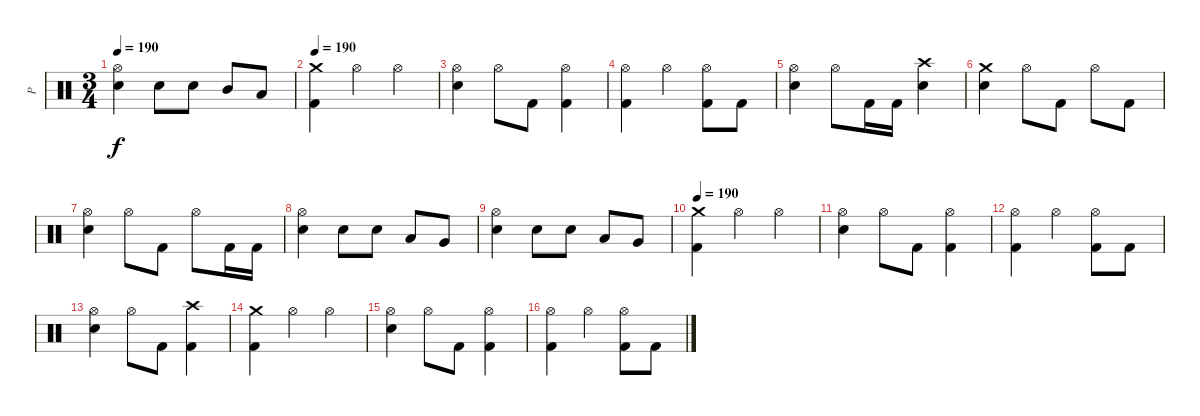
\track ("P" "P") {instrument percussion}
\staff {score}
\articulation defaults
\ts (3 4)
\tempo 190
\clef neutral
\ks c
("Hi-Hat (open)" "Electric Snare (hit)").4{dy f} "Electric Snare (hit)".8 "Electric Snare (hit)".8 "Mid Tom (hit)".8 "Low Tom (hit)".8 |
\tempo 190
("Crash medium (hit)" "Kick (hit) 2").4 "Hi-Hat (open)".4 "Hi-Hat (open)".4 |
("Hi-Hat (open)" "Electric Snare (hit)").4 "Hi-Hat (open)".8 "Kick (hit) 2".8 ("Hi-Hat (open)" "Kick (hit) 2").4 |
("Hi-Hat (open)" "Kick (hit) 2").4 "Hi-Hat (open)".4 ("Hi-Hat (open)" "Kick (hit) 2").8 "Kick (hit) 2".8 |
("Hi-Hat (open)" "Electric Snare (hit)").4 "Hi-Hat (open)".8 "Kick (hit) 2".16 "Kick (hit) 2".16 ("Crash high (hit)" "Electric Snare (hit)").4 |
("Crash medium (hit)" "Electric Snare (hit)").4 "Hi-Hat (open)".8 "Kick (hit) 2".8 "Hi-Hat (open)".8 "Kick (hit) 2".8 |
("Hi-Hat (open)" "Electric Snare (hit)").4 "Hi-Hat (open)".8 "Kick (hit) 2".8 "Hi-Hat (open)".8 "Kick (hit) 2".16 "Kick (hit) 2".16 |
("Hi-Hat (open)" "Electric Snare (hit)").4 "Electric Snare (hit)".8 "Electric Snare (hit)".8 "Low Tom (hit)".8 "Very Low Tom (hit)".8 |
("Hi-Hat (open)" "Electric Snare (hit)").4 "Electric Snare (hit)".8 "Electric Snare (hit)".8 "Low Tom (hit)".8 "Very Low Tom (hit)".8 |
\tempo 190
("Crash medium (hit)" "Kick (hit) 2").4 "Hi-Hat (open)".4 "Hi-Hat (open)".4 |
("Hi-Hat (open)" "Electric Snare (hit)").4 "Hi-Hat (open)".8 "Kick (hit) 2".8 ("Hi-Hat (open)" "Kick (hit) 2").4 |
("Hi-Hat (open)" "Kick (hit) 2").4 "Hi-Hat (open)".4 ("Hi-Hat (open)" "Kick (hit) 2").8 "Kick (hit) 2".8 |
("Hi-Hat (open)" "Electric Snare (hit)").4 "Hi-Hat (open)".8 "Kick (hit) 2".8 ("Crash high (hit)" "Kick (hit) 2").4 |
("Crash medium (hit)" "Kick (hit) 2").4 "Hi-Hat (open)".4 "Hi-Hat (open)".4 |
("Hi-Hat (open)" "Electric Snare (hit)").4 "Hi-Hat (open)".8 "Kick (hit) 2".8 ("Hi-Hat (open)" "Kick (hit) 2").4 |
("Hi-Hat (open)" "Kick (hit) 2").4 "Hi-Hat (open)".4 ("Hi-Hat (open)" "Kick (hit) 2").8 "Kick (hit) 2".8
